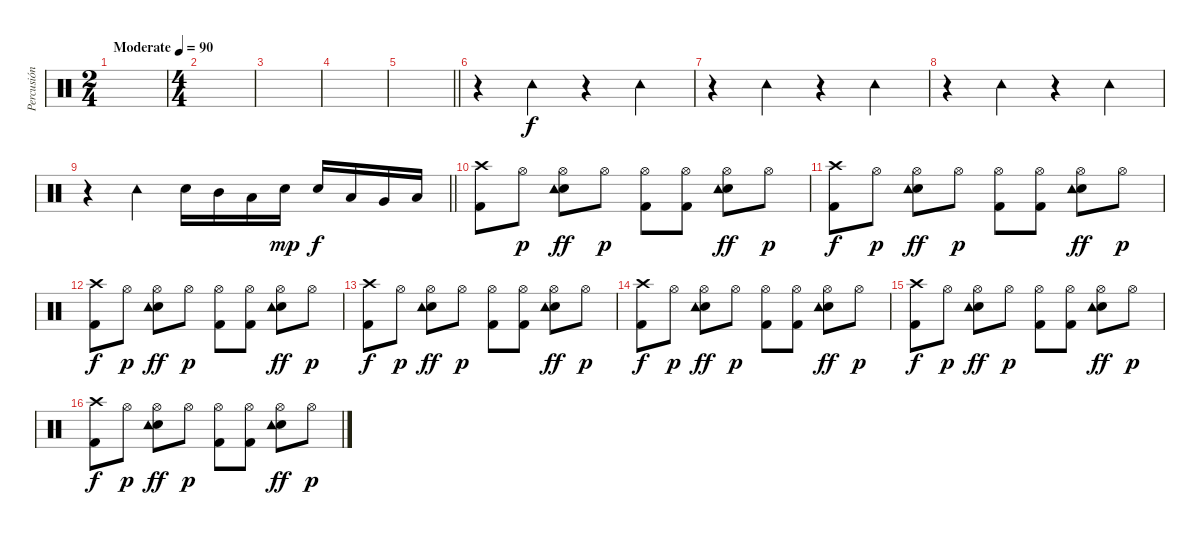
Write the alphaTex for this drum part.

\track ("Percusión" "Percusión") {instrument percussion}
\staff {score}
\articulation defaults
\ts (2 4)
\tempo (90 "Moderate")
\clef neutral
\ks c
|
\ts (4 4)
|
|
|
\barLineRight lightlight
|
r.4 "Tambourine (hit)".4 r.4 "Tambourine (hit)".4 |
r.4 "Tambourine (hit)".4 r.4 "Tambourine (hit)".4 |
r.4 "Tambourine (hit)".4 r.4 "Tambourine (hit)".4 |
\barLineRight lightlight
r.4 "Tambourine (hit)".4 "Snare (hit) 2".16 "Mid Tom (hit)".16 "Low Tom (hit)".16 "Snare (hit) 2".16{dy mp} "Snare (hit) 2".16{dy f} "Low Tom (hit)".16 "Very Low Tom (hit)".16 "Low Floor Tom (hit)".16 |
("Crash high (hit)" "Kick (hit) 2").8 "Hi-Hat (open)".8{dy p} ("Hi-Hat (open)" "Snare (hit) 2" "Tambourine (hit)").8{dy ff} "Hi-Hat (open)".8{dy p} ("Hi-Hat (open)" "Kick (hit) 2").8 ("Hi-Hat (open)" "Kick (hit) 2").8 ("Hi-Hat (open)" "Snare (hit) 2" "Tambourine (hit)").8{dy ff} "Hi-Hat (open)".8{dy p} |
("Crash high (hit)" "Kick (hit) 2").8{dy f} "Hi-Hat (open)".8{dy p} ("Hi-Hat (open)" "Snare (hit) 2" "Tambourine (hit)").8{dy ff} "Hi-Hat (open)".8{dy p} ("Hi-Hat (open)" "Kick (hit) 2").8 ("Hi-Hat (open)" "Kick (hit) 2").8 ("Hi-Hat (open)" "Snare (hit) 2" "Tambourine (hit)").8{dy ff} "Hi-Hat (open)".8{dy p} |
("Crash high (hit)" "Kick (hit) 2").8{dy f} "Hi-Hat (open)".8{dy p} ("Hi-Hat (open)" "Snare (hit) 2" "Tambourine (hit)").8{dy ff} "Hi-Hat (open)".8{dy p} ("Hi-Hat (open)" "Kick (hit) 2").8 ("Hi-Hat (open)" "Kick (hit) 2").8 ("Hi-Hat (open)" "Snare (hit) 2" "Tambourine (hit)").8{dy ff} "Hi-Hat (open)".8{dy p} |
("Crash high (hit)" "Kick (hit) 2").8{dy f} "Hi-Hat (open)".8{dy p} ("Hi-Hat (open)" "Snare (hit) 2" "Tambourine (hit)").8{dy ff} "Hi-Hat (open)".8{dy p} ("Hi-Hat (open)" "Kick (hit) 2").8 ("Hi-Hat (open)" "Kick (hit) 2").8 ("Hi-Hat (open)" "Snare (hit) 2" "Tambourine (hit)").8{dy ff} "Hi-Hat (open)".8{dy p} |
("Crash high (hit)" "Kick (hit) 2").8{dy f} "Hi-Hat (open)".8{dy p} ("Hi-Hat (open)" "Snare (hit) 2" "Tambourine (hit)").8{dy ff} "Hi-Hat (open)".8{dy p} ("Hi-Hat (open)" "Kick (hit) 2").8 ("Hi-Hat (open)" "Kick (hit) 2").8 ("Hi-Hat (open)" "Snare (hit) 2" "Tambourine (hit)").8{dy ff} "Hi-Hat (open)".8{dy p} |
("Crash high (hit)" "Kick (hit) 2").8{dy f} "Hi-Hat (open)".8{dy p} ("Hi-Hat (open)" "Snare (hit) 2" "Tambourine (hit)").8{dy ff} "Hi-Hat (open)".8{dy p} ("Hi-Hat (open)" "Kick (hit) 2").8 ("Hi-Hat (open)" "Kick (hit) 2").8 ("Hi-Hat (open)" "Snare (hit) 2" "Tambourine (hit)").8{dy ff} "Hi-Hat (open)".8{dy p} |
("Crash high (hit)" "Kick (hit) 2").8{dy f} "Hi-Hat (open)".8{dy p} ("Hi-Hat (open)" "Snare (hit) 2" "Tambourine (hit)").8{dy ff} "Hi-Hat (open)".8{dy p} ("Hi-Hat (open)" "Kick (hit) 2").8 ("Hi-Hat (open)" "Kick (hit) 2").8 ("Hi-Hat (open)" "Snare (hit) 2" "Tambourine (hit)").8{dy ff} "Hi-Hat (open)".8{dy p}
